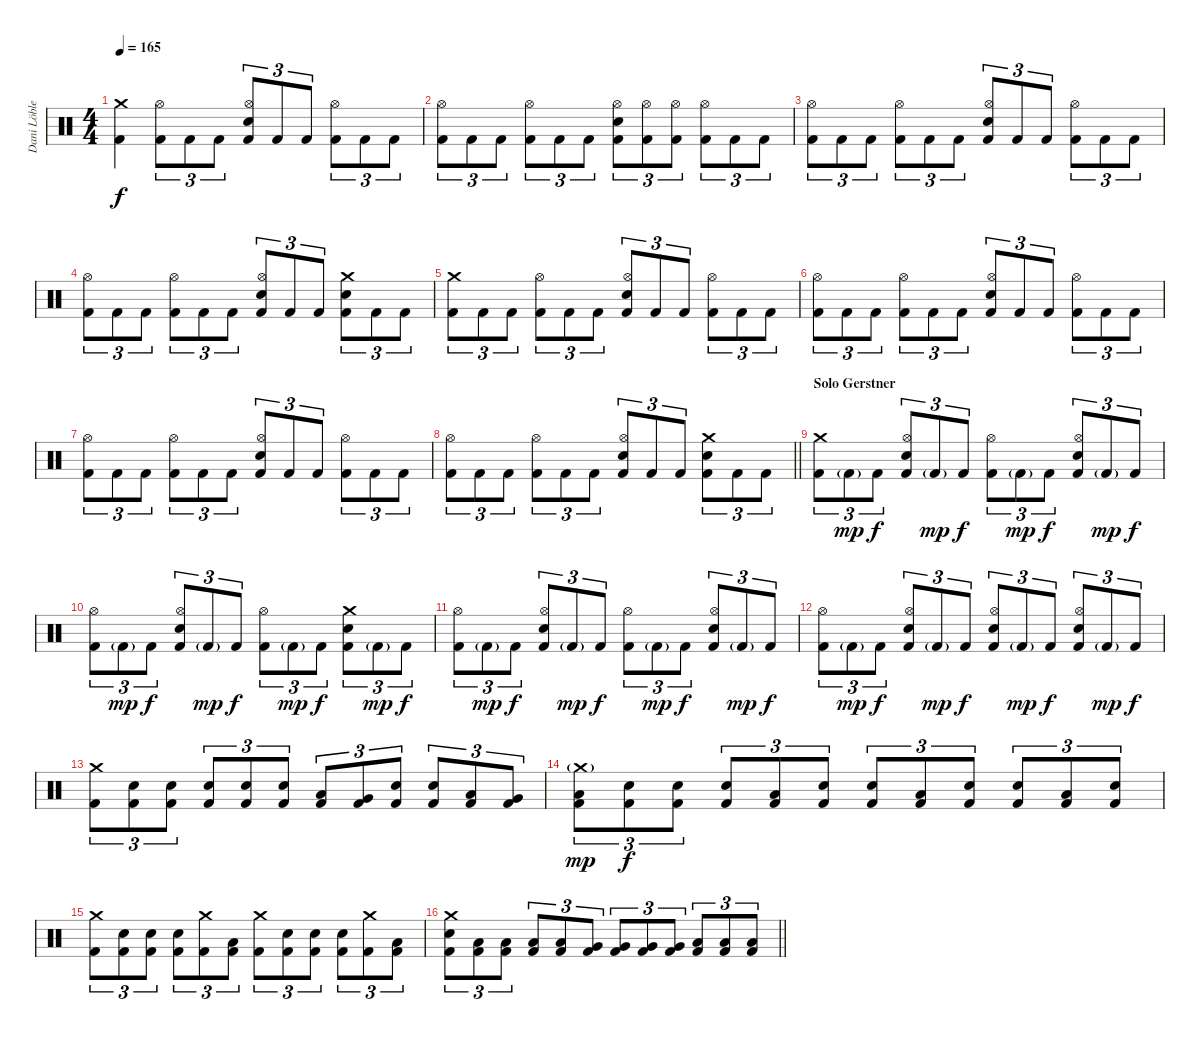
\track ("Dani Löble" "Dani Löble") {instrument percussion}
\staff {score}
\articulation defaults
\ts (4 4)
\tempo 165
\clef neutral
\ks c
("Crash medium (hit)" "Kick (hit) 2").4{dy f} ("Hi-Hat (open)" "Kick (hit) 2").8{tu (3 2)} "Kick (hit) 2".8{tu (3 2)} "Kick (hit) 2".8{tu (3 2)} ("Hi-Hat (open)" "Electric Snare (hit)" "Kick (hit) 2").8{tu (3 2)} "Kick (hit) 2".8{tu (3 2)} "Kick (hit) 2".8{tu (3 2)} ("Hi-Hat (open)" "Kick (hit) 2").8{tu (3 2)} "Kick (hit) 2".8{tu (3 2)} "Kick (hit) 2".8{tu (3 2)} |
("Hi-Hat (open)" "Kick (hit) 2").8{tu (3 2)} "Kick (hit) 2".8{tu (3 2)} "Kick (hit) 2".8{tu (3 2)} ("Hi-Hat (open)" "Kick (hit) 2").8{tu (3 2)} "Kick (hit) 2".8{tu (3 2)} "Kick (hit) 2".8{tu (3 2)} ("Hi-Hat (open)" "Electric Snare (hit)" "Kick (hit) 2").8{tu (3 2)} ("Hi-Hat (open)" "Kick (hit) 2").8{tu (3 2)} ("Hi-Hat (open)" "Kick (hit) 2").8{tu (3 2)} ("Hi-Hat (open)" "Kick (hit) 2").8{tu (3 2)} "Kick (hit) 2".8{tu (3 2)} "Kick (hit) 2".8{tu (3 2)} |
("Hi-Hat (open)" "Kick (hit) 2").8{tu (3 2)} "Kick (hit) 2".8{tu (3 2)} "Kick (hit) 2".8{tu (3 2)} ("Hi-Hat (open)" "Kick (hit) 2").8{tu (3 2)} "Kick (hit) 2".8{tu (3 2)} "Kick (hit) 2".8{tu (3 2)} ("Hi-Hat (open)" "Electric Snare (hit)" "Kick (hit) 2").8{tu (3 2)} "Kick (hit) 2".8{tu (3 2)} "Kick (hit) 2".8{tu (3 2)} ("Hi-Hat (open)" "Kick (hit) 2").8{tu (3 2)} "Kick (hit) 2".8{tu (3 2)} "Kick (hit) 2".8{tu (3 2)} |
("Hi-Hat (open)" "Kick (hit) 2").8{tu (3 2)} "Kick (hit) 2".8{tu (3 2)} "Kick (hit) 2".8{tu (3 2)} ("Hi-Hat (open)" "Kick (hit) 2").8{tu (3 2)} "Kick (hit) 2".8{tu (3 2)} "Kick (hit) 2".8{tu (3 2)} ("Hi-Hat (open)" "Electric Snare (hit)" "Kick (hit) 2").8{tu (3 2)} "Kick (hit) 2".8{tu (3 2)} "Kick (hit) 2".8{tu (3 2)} ("Crash medium (hit)" "Electric Snare (hit)" "Kick (hit) 2").8{tu (3 2)} "Kick (hit) 2".8{tu (3 2)} "Kick (hit) 2".8{tu (3 2)} |
("Crash medium (hit)" "Kick (hit) 2").8{tu (3 2)} "Kick (hit) 2".8{tu (3 2)} "Kick (hit) 2".8{tu (3 2)} ("Hi-Hat (open)" "Kick (hit) 2").8{tu (3 2)} "Kick (hit) 2".8{tu (3 2)} "Kick (hit) 2".8{tu (3 2)} ("Hi-Hat (open)" "Electric Snare (hit)" "Kick (hit) 2").8{tu (3 2)} "Kick (hit) 2".8{tu (3 2)} "Kick (hit) 2".8{tu (3 2)} ("Hi-Hat (open)" "Kick (hit) 2").8{tu (3 2)} "Kick (hit) 2".8{tu (3 2)} "Kick (hit) 2".8{tu (3 2)} |
("Hi-Hat (open)" "Kick (hit) 2").8{tu (3 2)} "Kick (hit) 2".8{tu (3 2)} "Kick (hit) 2".8{tu (3 2)} ("Hi-Hat (open)" "Kick (hit) 2").8{tu (3 2)} "Kick (hit) 2".8{tu (3 2)} "Kick (hit) 2".8{tu (3 2)} ("Hi-Hat (open)" "Electric Snare (hit)" "Kick (hit) 2").8{tu (3 2)} "Kick (hit) 2".8{tu (3 2)} "Kick (hit) 2".8{tu (3 2)} ("Hi-Hat (open)" "Kick (hit) 2").8{tu (3 2)} "Kick (hit) 2".8{tu (3 2)} "Kick (hit) 2".8{tu (3 2)} |
("Hi-Hat (open)" "Kick (hit) 2").8{tu (3 2)} "Kick (hit) 2".8{tu (3 2)} "Kick (hit) 2".8{tu (3 2)} ("Hi-Hat (open)" "Kick (hit) 2").8{tu (3 2)} "Kick (hit) 2".8{tu (3 2)} "Kick (hit) 2".8{tu (3 2)} ("Hi-Hat (open)" "Electric Snare (hit)" "Kick (hit) 2").8{tu (3 2)} "Kick (hit) 2".8{tu (3 2)} "Kick (hit) 2".8{tu (3 2)} ("Hi-Hat (open)" "Kick (hit) 2").8{tu (3 2)} "Kick (hit) 2".8{tu (3 2)} "Kick (hit) 2".8{tu (3 2)} |
\barLineRight lightlight
("Hi-Hat (open)" "Kick (hit) 2").8{tu (3 2)} "Kick (hit) 2".8{tu (3 2)} "Kick (hit) 2".8{tu (3 2)} ("Hi-Hat (open)" "Kick (hit) 2").8{tu (3 2)} "Kick (hit) 2".8{tu (3 2)} "Kick (hit) 2".8{tu (3 2)} ("Hi-Hat (open)" "Electric Snare (hit)" "Kick (hit) 2").8{tu (3 2)} "Kick (hit) 2".8{tu (3 2)} "Kick (hit) 2".8{tu (3 2)} ("Crash medium (hit)" "Electric Snare (hit)" "Kick (hit) 2").8{tu (3 2)} "Kick (hit) 2".8{tu (3 2)} "Kick (hit) 2".8{tu (3 2)} |
\section ("" "Solo Gerstner")
("Crash medium (hit)" "Kick (hit) 2").8{tu (3 2)} "Kick (hit) 2"{g}.8{tu (3 2) dy mp} "Kick (hit) 2".8{tu (3 2) dy f} ("Hi-Hat (open)" "Electric Snare (hit)" "Kick (hit) 2").8{tu (3 2)} "Kick (hit) 2"{g}.8{tu (3 2) dy mp} "Kick (hit) 2".8{tu (3 2) dy f} ("Hi-Hat (open)" "Kick (hit) 2").8{tu (3 2)} "Kick (hit) 2"{g}.8{tu (3 2) dy mp} "Kick (hit) 2".8{tu (3 2) dy f} ("Hi-Hat (open)" "Electric Snare (hit)" "Kick (hit) 2").8{tu (3 2)} "Kick (hit) 2"{g}.8{tu (3 2) dy mp} "Kick (hit) 2".8{tu (3 2) dy f} |
("Hi-Hat (open)" "Kick (hit) 2").8{tu (3 2)} "Kick (hit) 2"{g}.8{tu (3 2) dy mp} "Kick (hit) 2".8{tu (3 2) dy f} ("Hi-Hat (open)" "Electric Snare (hit)" "Kick (hit) 2").8{tu (3 2)} "Kick (hit) 2"{g}.8{tu (3 2) dy mp} "Kick (hit) 2".8{tu (3 2) dy f} ("Hi-Hat (open)" "Kick (hit) 2").8{tu (3 2)} "Kick (hit) 2"{g}.8{tu (3 2) dy mp} "Kick (hit) 2".8{tu (3 2) dy f} ("Crash medium (hit)" "Electric Snare (hit)" "Kick (hit) 2").8{tu (3 2)} "Kick (hit) 2"{g}.8{tu (3 2) dy mp} "Kick (hit) 2".8{tu (3 2) dy f} |
("Hi-Hat (open)" "Kick (hit) 2").8{tu (3 2)} "Kick (hit) 2"{g}.8{tu (3 2) dy mp} "Kick (hit) 2".8{tu (3 2) dy f} ("Hi-Hat (open)" "Electric Snare (hit)" "Kick (hit) 2").8{tu (3 2)} "Kick (hit) 2"{g}.8{tu (3 2) dy mp} "Kick (hit) 2".8{tu (3 2) dy f} ("Hi-Hat (open)" "Kick (hit) 2").8{tu (3 2)} "Kick (hit) 2"{g}.8{tu (3 2) dy mp} "Kick (hit) 2".8{tu (3 2) dy f} ("Hi-Hat (open)" "Electric Snare (hit)" "Kick (hit) 2").8{tu (3 2)} "Kick (hit) 2"{g}.8{tu (3 2) dy mp} "Kick (hit) 2".8{tu (3 2) dy f} |
("Hi-Hat (open)" "Kick (hit) 2").8{tu (3 2)} "Kick (hit) 2"{g}.8{tu (3 2) dy mp} "Kick (hit) 2".8{tu (3 2) dy f} ("Hi-Hat (open)" "Electric Snare (hit)" "Kick (hit) 2").8{tu (3 2)} "Kick (hit) 2"{g}.8{tu (3 2) dy mp} "Kick (hit) 2".8{tu (3 2) dy f} ("Hi-Hat (open)" "Electric Snare (hit)" "Kick (hit) 2").8{tu (3 2)} "Kick (hit) 2"{g}.8{tu (3 2) dy mp} "Kick (hit) 2".8{tu (3 2) dy f} ("Hi-Hat (open)" "Electric Snare (hit)" "Kick (hit) 2").8{tu (3 2)} "Kick (hit) 2"{g}.8{tu (3 2) dy mp} "Kick (hit) 2".8{tu (3 2) dy f} |
("Crash medium (hit)" "Kick (hit) 2").8{tu (3 2)} ("Electric Snare (hit)" "Kick (hit) 2").8{tu (3 2)} ("Electric Snare (hit)" "Kick (hit) 2").8{tu (3 2)} ("Electric Snare (hit)" "Kick (hit) 2").8{tu (3 2)} ("Electric Snare (hit)" "Kick (hit) 2").8{tu (3 2)} ("Electric Snare (hit)" "Kick (hit) 2").8{tu (3 2)} ("Low Tom (hit)" "Kick (hit) 2").8{tu (3 2)} ("Very Low Tom (hit)" "Kick (hit) 2").8{tu (3 2)} ("Electric Snare (hit)" "Kick (hit) 2").8{tu (3 2)} ("Electric Snare (hit)" "Kick (hit) 2").8{tu (3 2)} ("Low Tom (hit)" "Kick (hit) 2").8{tu (3 2)} ("Very Low Tom (hit)" "Kick (hit) 2").8{tu (3 2)} |
("Crash medium (hit)"{g} "Low Floor Tom (hit)" "Kick (hit) 2").8{tu (3 2) dy mp} ("Electric Snare (hit)" "Kick (hit) 2").8{tu (3 2) dy f} ("Electric Snare (hit)" "Kick (hit) 2").8{tu (3 2)} ("Electric Snare (hit)" "Kick (hit) 2").8{tu (3 2)} ("Low Floor Tom (hit)" "Kick (hit) 2").8{tu (3 2)} ("Electric Snare (hit)" "Kick (hit) 2").8{tu (3 2)} ("Electric Snare (hit)" "Kick (hit) 2").8{tu (3 2)} ("Low Floor Tom (hit)" "Kick (hit) 2").8{tu (3 2)} ("Electric Snare (hit)" "Kick (hit) 2").8{tu (3 2)} ("Electric Snare (hit)" "Kick (hit) 2").8{tu (3 2)} ("Low Floor Tom (hit)" "Kick (hit) 2").8{tu (3 2)} ("Electric Snare (hit)" "Kick (hit) 2").8{tu (3 2)} |
("Crash medium (hit)" "Kick (hit) 2").8{tu (3 2)} ("Electric Snare (hit)" "Kick (hit) 2").8{tu (3 2)} ("Electric Snare (hit)" "Kick (hit) 2").8{tu (3 2)} ("Electric Snare (hit)" "Kick (hit) 2").8{tu (3 2)} ("Crash medium (hit)" "Kick (hit) 2").8{tu (3 2)} ("Low Floor Tom (hit)" "Kick (hit) 2").8{tu (3 2)} ("Crash medium (hit)" "Kick (hit) 2").8{tu (3 2)} ("Electric Snare (hit)" "Kick (hit) 2").8{tu (3 2)} ("Electric Snare (hit)" "Kick (hit) 2").8{tu (3 2)} ("Electric Snare (hit)" "Kick (hit) 2").8{tu (3 2)} ("Crash medium (hit)" "Kick (hit) 2").8{tu (3 2)} ("Low Floor Tom (hit)" "Kick (hit) 2").8{tu (3 2)} |
\barLineRight lightlight
("Crash medium (hit)" "Electric Snare (hit)" "Kick (hit) 2").8{tu (3 2)} ("Low Tom (hit)" "Kick (hit) 2").8{tu (3 2)} ("Low Tom (hit)" "Kick (hit) 2").8{tu (3 2)} ("Low Tom (hit)" "Kick (hit) 2").8{tu (3 2)} ("Low Tom (hit)" "Kick (hit) 2").8{tu (3 2)} ("Very Low Tom (hit)" "Kick (hit) 2").8{tu (3 2)} ("Very Low Tom (hit)" "Kick (hit) 2").8{tu (3 2)} ("Very Low Tom (hit)" "Kick (hit) 2").8{tu (3 2)} ("Very Low Tom (hit)" "Kick (hit) 2").8{tu (3 2)} ("Low Floor Tom (hit)" "Kick (hit) 2").8{tu (3 2)} ("Low Floor Tom (hit)" "Kick (hit) 2").8{tu (3 2)} ("Low Floor Tom (hit)" "Kick (hit) 2").8{tu (3 2)}
